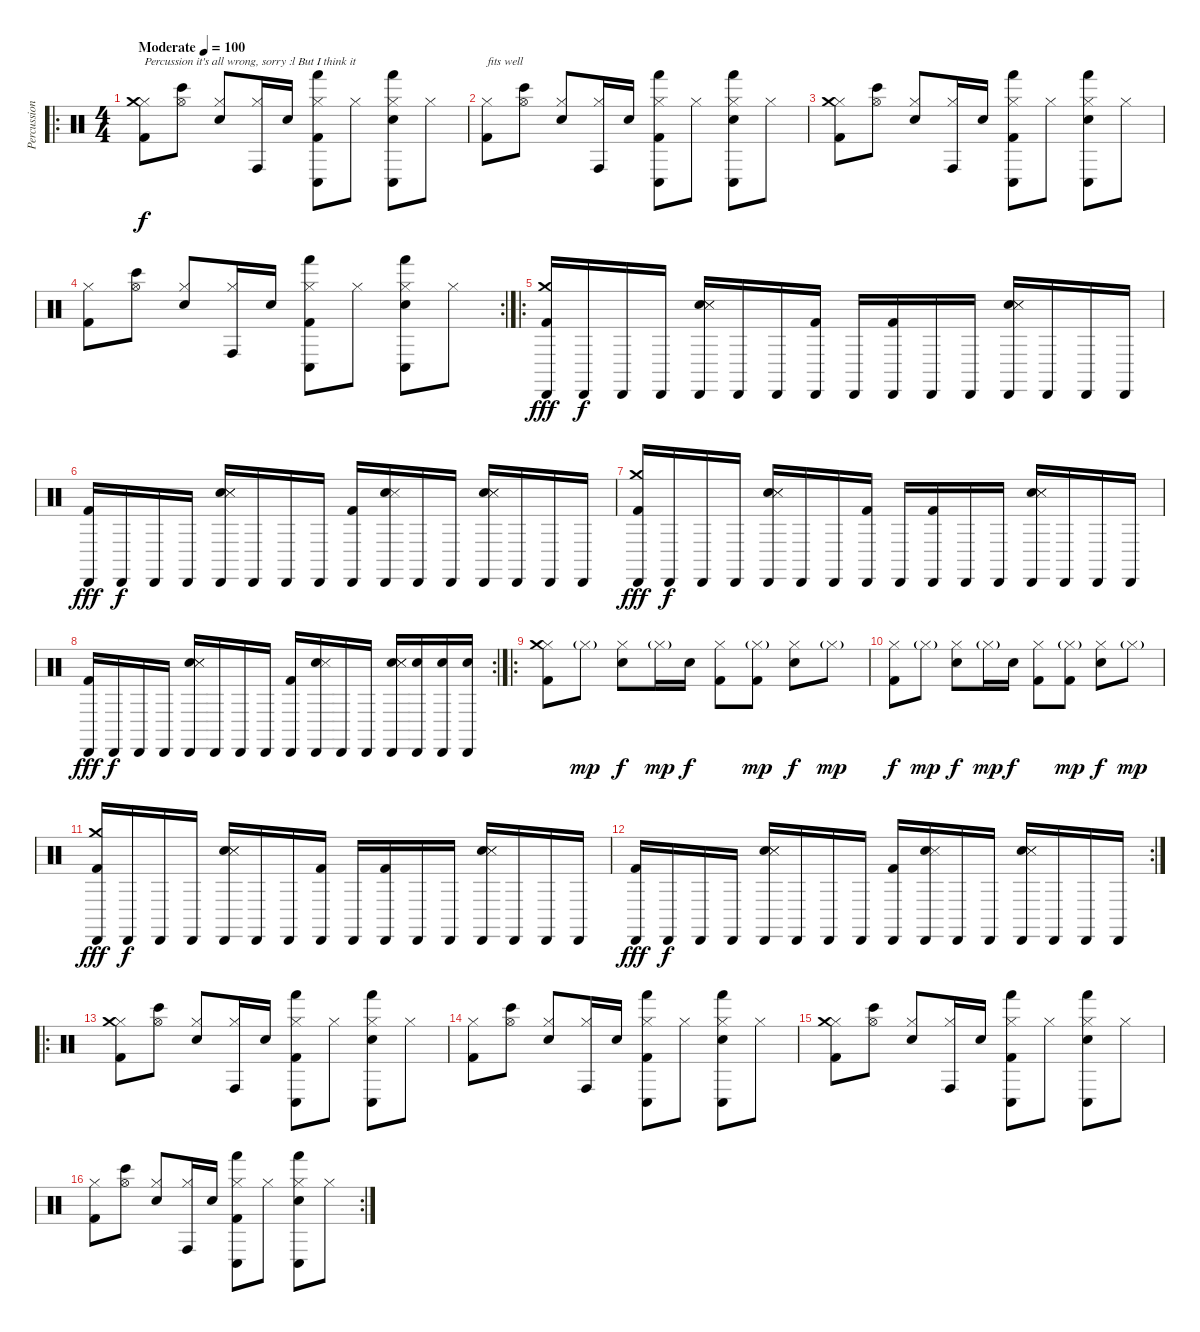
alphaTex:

\track ("Percussion" "Percussion") {instrument percussion}
\staff {score}
\articulation defaults
\ro
\ts (4 4)
\tempo (100 "Moderate")
\clef neutral
\ks c
("Hi-Hat (closed)" "Kick (hit) 2" "Crash medium (hit)").8{txt "Percussion it's all wrong, sorry :l But I think it" dy f} ("Hi-Hat (open)" "Bongo High (hit)").8 ("Hi-Hat (closed)" "Electric Snare (hit)").8 ("Hi-Hat (closed)" "Conga high (hit)").16 "Electric Snare (hit)".16 ("Hi-Hat (closed)" "Kick (hit) 2" "Conga low (hit)" "Hand (hit)").8 "Hi-Hat (closed)".8 ("Hi-Hat (closed)" "Electric Snare (hit)" "Conga low (hit)" "Hand (hit)").8 "Hi-Hat (closed)".8 |
("Hi-Hat (closed)" "Kick (hit) 2").8{txt "fits well"} ("Hi-Hat (open)" "Bongo High (hit)").8 ("Hi-Hat (closed)" "Electric Snare (hit)").8 ("Hi-Hat (closed)" "Conga high (hit)").16 "Electric Snare (hit)".16 ("Hi-Hat (closed)" "Kick (hit) 2" "Conga low (hit)" "Hand (hit)").8 "Hi-Hat (closed)".8 ("Hi-Hat (closed)" "Electric Snare (hit)" "Conga low (hit)" "Hand (hit)").8 "Hi-Hat (closed)".8 |
("Hi-Hat (closed)" "Kick (hit) 2" "Crash medium (hit)").8 ("Hi-Hat (open)" "Bongo High (hit)").8 ("Hi-Hat (closed)" "Electric Snare (hit)").8 ("Hi-Hat (closed)" "Conga high (hit)").16 "Electric Snare (hit)".16 ("Hi-Hat (closed)" "Kick (hit) 2" "Conga low (hit)" "Hand (hit)").8 "Hi-Hat (closed)".8 ("Hi-Hat (closed)" "Electric Snare (hit)" "Conga low (hit)" "Hand (hit)").8 "Hi-Hat (closed)".8 |
\rc 2
("Hi-Hat (closed)" "Kick (hit) 2").8 ("Hi-Hat (open)" "Bongo High (hit)").8 ("Hi-Hat (closed)" "Electric Snare (hit)").8 ("Hi-Hat (closed)" "Conga high (hit)").16 "Electric Snare (hit)".16 ("Hi-Hat (closed)" "Kick (hit) 2" "Conga low (hit)" "Hand (hit)").8 "Hi-Hat (closed)".8 ("Hi-Hat (closed)" "Electric Snare (hit)" "Conga low (hit)" "Hand (hit)").8 "Hi-Hat (closed)".8 |
\ro
("Cabasa (hit)" "Crash medium (hit)" "Kick (hit) 2").16{dy fff volume 12} "Cabasa (hit)".16{dy f} "Cabasa (hit)".16 "Cabasa (hit)".16 ("Cabasa (hit)" "Electric Snare (hit)" "Metronome (hit)" "Snare (side stick) 3").16 "Cabasa (hit)".16 "Cabasa (hit)".16 ("Cabasa (hit)" "Kick (hit) 2").16 "Cabasa (hit)".16 ("Cabasa (hit)" "Kick (hit) 2").16 "Cabasa (hit)".16 "Cabasa (hit)".16 ("Cabasa (hit)" "Electric Snare (hit)" "Metronome (hit)" "Snare (side stick) 3").16 "Cabasa (hit)".16 "Cabasa (hit)".16 "Cabasa (hit)".16 |
("Cabasa (hit)" "Kick (hit) 2").16{dy fff} "Cabasa (hit)".16{dy f} "Cabasa (hit)".16 "Cabasa (hit)".16 ("Cabasa (hit)" "Electric Snare (hit)" "Metronome (hit)" "Snare (side stick) 3").16 "Cabasa (hit)".16 "Cabasa (hit)".16 "Cabasa (hit)".16 ("Cabasa (hit)" "Kick (hit) 2").16 ("Cabasa (hit)" "Electric Snare (hit)" "Metronome (hit)").16 "Cabasa (hit)".16 "Cabasa (hit)".16 ("Cabasa (hit)" "Electric Snare (hit)" "Metronome (hit)" "Snare (side stick) 3").16 "Cabasa (hit)".16 "Cabasa (hit)".16 "Cabasa (hit)".16 |
("Cabasa (hit)" "Crash medium (hit)" "Kick (hit) 2").16{dy fff volume 12} "Cabasa (hit)".16{dy f} "Cabasa (hit)".16 "Cabasa (hit)".16 ("Cabasa (hit)" "Electric Snare (hit)" "Metronome (hit)" "Snare (side stick) 3").16 "Cabasa (hit)".16 "Cabasa (hit)".16 ("Cabasa (hit)" "Kick (hit) 2").16 "Cabasa (hit)".16 ("Cabasa (hit)" "Kick (hit) 2").16 "Cabasa (hit)".16 "Cabasa (hit)".16 ("Cabasa (hit)" "Electric Snare (hit)" "Metronome (hit)" "Snare (side stick) 3").16 "Cabasa (hit)".16 "Cabasa (hit)".16 "Cabasa (hit)".16 |
\rc 2
("Cabasa (hit)" "Kick (hit) 2").16{dy fff} "Cabasa (hit)".16{dy f} "Cabasa (hit)".16 "Cabasa (hit)".16 ("Cabasa (hit)" "Electric Snare (hit)" "Metronome (hit)" "Snare (side stick) 3").16 "Cabasa (hit)".16 "Cabasa (hit)".16 "Cabasa (hit)".16 ("Cabasa (hit)" "Kick (hit) 2").16 ("Cabasa (hit)" "Electric Snare (hit)" "Metronome (hit)").16 "Cabasa (hit)".16 "Cabasa (hit)".16 ("Cabasa (hit)" "Electric Snare (hit)" "Metronome (hit)" "Snare (side stick) 3").16 ("Cabasa (hit)" "Electric Snare (hit)").16 ("Cabasa (hit)" "Electric Snare (hit)").16 ("Cabasa (hit)" "Electric Snare (hit)").16 |
\ro
("Hi-Hat (closed)" "Kick (hit) 2" "Crash medium (hit)").8{volume 15} "Hi-Hat (closed)"{g}.8{dy mp} ("Hi-Hat (closed)" "Electric Snare (hit)").8{dy f} "Hi-Hat (closed)"{g}.16{dy mp} "Electric Snare (hit)".16{dy f} ("Hi-Hat (closed)" "Kick (hit) 2").8 ("Hi-Hat (closed)"{g} "Kick (hit) 2").8{dy mp} ("Hi-Hat (closed)" "Electric Snare (hit)").8{dy f} "Hi-Hat (closed)"{g}.8{dy mp} |
("Hi-Hat (closed)" "Kick (hit) 2").8{dy f volume 15} "Hi-Hat (closed)"{g}.8{dy mp} ("Hi-Hat (closed)" "Electric Snare (hit)").8{dy f} "Hi-Hat (closed)"{g}.16{dy mp} "Electric Snare (hit)".16{dy f} ("Hi-Hat (closed)" "Kick (hit) 2").8 ("Hi-Hat (closed)"{g} "Kick (hit) 2").8{dy mp} ("Hi-Hat (closed)" "Electric Snare (hit)").8{dy f} "Hi-Hat (closed)"{g}.8{dy mp} |
("Cabasa (hit)" "Crash medium (hit)" "Kick (hit) 2").16{dy fff volume 12} "Cabasa (hit)".16{dy f} "Cabasa (hit)".16 "Cabasa (hit)".16 ("Cabasa (hit)" "Electric Snare (hit)" "Metronome (hit)" "Snare (side stick) 3").16 "Cabasa (hit)".16 "Cabasa (hit)".16 ("Cabasa (hit)" "Kick (hit) 2").16 "Cabasa (hit)".16 ("Cabasa (hit)" "Kick (hit) 2").16 "Cabasa (hit)".16 "Cabasa (hit)".16 ("Cabasa (hit)" "Electric Snare (hit)" "Metronome (hit)" "Snare (side stick) 3").16 "Cabasa (hit)".16 "Cabasa (hit)".16 "Cabasa (hit)".16 |
\rc 2
("Cabasa (hit)" "Kick (hit) 2").16{dy fff} "Cabasa (hit)".16{dy f} "Cabasa (hit)".16 "Cabasa (hit)".16 ("Cabasa (hit)" "Electric Snare (hit)" "Metronome (hit)" "Snare (side stick) 3").16 "Cabasa (hit)".16 "Cabasa (hit)".16 "Cabasa (hit)".16 ("Cabasa (hit)" "Kick (hit) 2").16 ("Cabasa (hit)" "Electric Snare (hit)" "Metronome (hit)").16 "Cabasa (hit)".16 "Cabasa (hit)".16 ("Cabasa (hit)" "Electric Snare (hit)" "Metronome (hit)" "Snare (side stick) 3").16 "Cabasa (hit)".16 "Cabasa (hit)".16 "Cabasa (hit)".16 |
\ro
("Hi-Hat (closed)" "Kick (hit) 2" "Crash medium (hit)").8 ("Hi-Hat (open)" "Bongo High (hit)").8 ("Hi-Hat (closed)" "Electric Snare (hit)").8 ("Hi-Hat (closed)" "Conga high (hit)").16 "Electric Snare (hit)".16 ("Hi-Hat (closed)" "Kick (hit) 2" "Conga low (hit)" "Hand (hit)").8 "Hi-Hat (closed)".8 ("Hi-Hat (closed)" "Electric Snare (hit)" "Conga low (hit)" "Hand (hit)").8 "Hi-Hat (closed)".8 |
("Hi-Hat (closed)" "Kick (hit) 2").8 ("Hi-Hat (open)" "Bongo High (hit)").8 ("Hi-Hat (closed)" "Electric Snare (hit)").8 ("Hi-Hat (closed)" "Conga high (hit)").16 "Electric Snare (hit)".16 ("Hi-Hat (closed)" "Kick (hit) 2" "Conga low (hit)" "Hand (hit)").8 "Hi-Hat (closed)".8 ("Hi-Hat (closed)" "Electric Snare (hit)" "Conga low (hit)" "Hand (hit)").8 "Hi-Hat (closed)".8 |
("Hi-Hat (closed)" "Kick (hit) 2" "Crash medium (hit)").8 ("Hi-Hat (open)" "Bongo High (hit)").8 ("Hi-Hat (closed)" "Electric Snare (hit)").8 ("Hi-Hat (closed)" "Conga high (hit)").16 "Electric Snare (hit)".16 ("Hi-Hat (closed)" "Kick (hit) 2" "Conga low (hit)" "Hand (hit)").8 "Hi-Hat (closed)".8 ("Hi-Hat (closed)" "Electric Snare (hit)" "Conga low (hit)" "Hand (hit)").8 "Hi-Hat (closed)".8 |
\rc 2
("Hi-Hat (closed)" "Kick (hit) 2").8 ("Hi-Hat (open)" "Bongo High (hit)").8 ("Hi-Hat (closed)" "Electric Snare (hit)").8 ("Hi-Hat (closed)" "Conga high (hit)").16 "Electric Snare (hit)".16 ("Hi-Hat (closed)" "Kick (hit) 2" "Conga low (hit)" "Hand (hit)").8 "Hi-Hat (closed)".8 ("Hi-Hat (closed)" "Electric Snare (hit)" "Conga low (hit)" "Hand (hit)").8 "Hi-Hat (closed)".8
